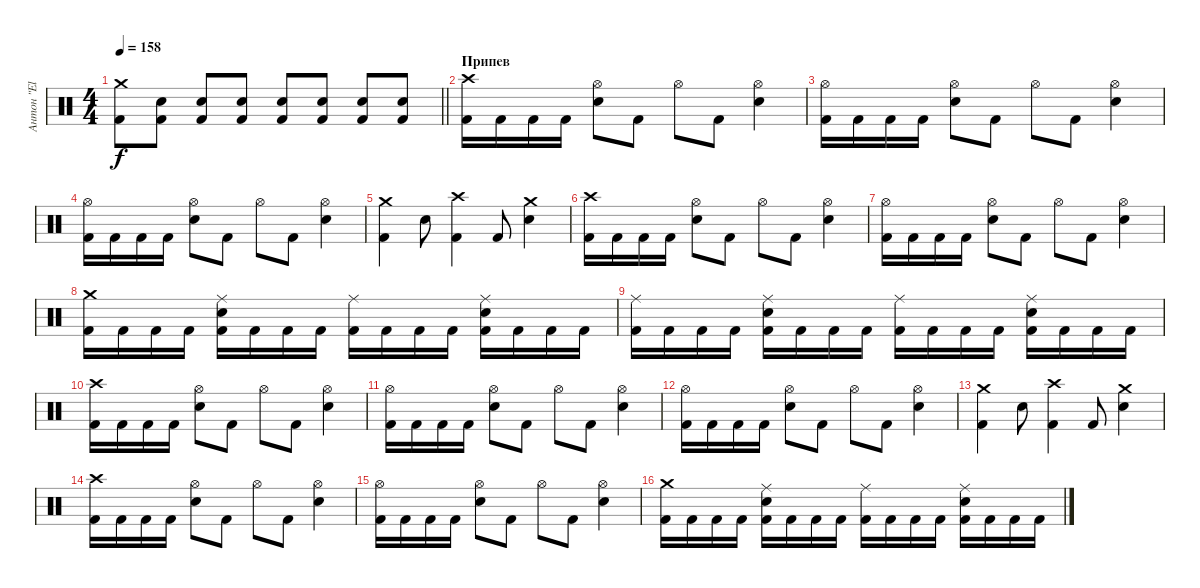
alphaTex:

\track ("Антон \"El Bastardo\" Смольянин" "Антон \"El ") {instrument percussion}
\staff {score}
\articulation defaults
\ts (4 4)
\tempo 158
\clef neutral
\barLineRight lightlight
\ks c
("Crash medium (hit)" "Kick (hit) 2").8{dy f} ("Electric Snare (hit)" "Kick (hit) 2").8 ("Electric Snare (hit)" "Kick (hit) 2").8 ("Electric Snare (hit)" "Kick (hit) 2").8 ("Electric Snare (hit)" "Kick (hit) 2").8 ("Electric Snare (hit)" "Kick (hit) 2").8 ("Electric Snare (hit)" "Kick (hit) 2").8 ("Electric Snare (hit)" "Kick (hit) 2").8 |
\section ("" "Припев")
("Crash high (hit)" "Kick (hit) 2").16 "Kick (hit) 2".16 "Kick (hit) 2".16 "Kick (hit) 2".16 ("Hi-Hat (open)" "Electric Snare (hit)").8 "Kick (hit) 2".8 "Hi-Hat (open)".8 "Kick (hit) 2".8 ("Hi-Hat (open)" "Electric Snare (hit)").4 |
("Hi-Hat (open)" "Kick (hit) 2").16 "Kick (hit) 2".16 "Kick (hit) 2".16 "Kick (hit) 2".16 ("Hi-Hat (open)" "Electric Snare (hit)").8 "Kick (hit) 2".8 "Hi-Hat (open)".8 "Kick (hit) 2".8 ("Hi-Hat (open)" "Electric Snare (hit)").4 |
("Hi-Hat (open)" "Kick (hit) 2").16 "Kick (hit) 2".16 "Kick (hit) 2".16 "Kick (hit) 2".16 ("Hi-Hat (open)" "Electric Snare (hit)").8 "Kick (hit) 2".8 "Hi-Hat (open)".8 "Kick (hit) 2".8 ("Hi-Hat (open)" "Electric Snare (hit)").4 |
("Crash medium (hit)" "Kick (hit) 2").4 "Electric Snare (hit)".8 ("Crash high (hit)" "Kick (hit) 2").4 "Kick (hit) 2".8 ("Crash medium (hit)" "Electric Snare (hit)").4 |
("Crash high (hit)" "Kick (hit) 2").16 "Kick (hit) 2".16 "Kick (hit) 2".16 "Kick (hit) 2".16 ("Hi-Hat (open)" "Electric Snare (hit)").8 "Kick (hit) 2".8 "Hi-Hat (open)".8 "Kick (hit) 2".8 ("Hi-Hat (open)" "Electric Snare (hit)").4 |
("Hi-Hat (open)" "Kick (hit) 2").16 "Kick (hit) 2".16 "Kick (hit) 2".16 "Kick (hit) 2".16 ("Hi-Hat (open)" "Electric Snare (hit)").8 "Kick (hit) 2".8 "Hi-Hat (open)".8 "Kick (hit) 2".8 ("Hi-Hat (open)" "Electric Snare (hit)").4 |
("Crash medium (hit)" "Kick (hit) 2").16 "Kick (hit) 2".16 "Kick (hit) 2".16 "Kick (hit) 2".16 ("Ride (middle)" "Electric Snare (hit)" "Kick (hit) 2").16 "Kick (hit) 2".16 "Kick (hit) 2".16 "Kick (hit) 2".16 ("Ride (middle)" "Kick (hit) 2").16 "Kick (hit) 2".16 "Kick (hit) 2".16 "Kick (hit) 2".16 ("Ride (middle)" "Electric Snare (hit)" "Kick (hit) 2").16 "Kick (hit) 2".16 "Kick (hit) 2".16 "Kick (hit) 2".16 |
("Ride (middle)" "Kick (hit) 2").16 "Kick (hit) 2".16 "Kick (hit) 2".16 "Kick (hit) 2".16 ("Ride (middle)" "Electric Snare (hit)" "Kick (hit) 2").16 "Kick (hit) 2".16 "Kick (hit) 2".16 "Kick (hit) 2".16 ("Ride (middle)" "Kick (hit) 2").16 "Kick (hit) 2".16 "Kick (hit) 2".16 "Kick (hit) 2".16 ("Ride (middle)" "Electric Snare (hit)" "Kick (hit) 2").16 "Kick (hit) 2".16 "Kick (hit) 2".16 "Kick (hit) 2".16 |
("Crash high (hit)" "Kick (hit) 2").16 "Kick (hit) 2".16 "Kick (hit) 2".16 "Kick (hit) 2".16 ("Hi-Hat (open)" "Electric Snare (hit)").8 "Kick (hit) 2".8 "Hi-Hat (open)".8 "Kick (hit) 2".8 ("Hi-Hat (open)" "Electric Snare (hit)").4 |
("Hi-Hat (open)" "Kick (hit) 2").16 "Kick (hit) 2".16 "Kick (hit) 2".16 "Kick (hit) 2".16 ("Hi-Hat (open)" "Electric Snare (hit)").8 "Kick (hit) 2".8 "Hi-Hat (open)".8 "Kick (hit) 2".8 ("Hi-Hat (open)" "Electric Snare (hit)").4 |
("Hi-Hat (open)" "Kick (hit) 2").16 "Kick (hit) 2".16 "Kick (hit) 2".16 "Kick (hit) 2".16 ("Hi-Hat (open)" "Electric Snare (hit)").8 "Kick (hit) 2".8 "Hi-Hat (open)".8 "Kick (hit) 2".8 ("Hi-Hat (open)" "Electric Snare (hit)").4 |
("Crash medium (hit)" "Kick (hit) 2").4 "Electric Snare (hit)".8 ("Crash high (hit)" "Kick (hit) 2").4 "Kick (hit) 2".8 ("Crash medium (hit)" "Electric Snare (hit)").4 |
("Crash high (hit)" "Kick (hit) 2").16 "Kick (hit) 2".16 "Kick (hit) 2".16 "Kick (hit) 2".16 ("Hi-Hat (open)" "Electric Snare (hit)").8 "Kick (hit) 2".8 "Hi-Hat (open)".8 "Kick (hit) 2".8 ("Hi-Hat (open)" "Electric Snare (hit)").4 |
("Hi-Hat (open)" "Kick (hit) 2").16 "Kick (hit) 2".16 "Kick (hit) 2".16 "Kick (hit) 2".16 ("Hi-Hat (open)" "Electric Snare (hit)").8 "Kick (hit) 2".8 "Hi-Hat (open)".8 "Kick (hit) 2".8 ("Hi-Hat (open)" "Electric Snare (hit)").4 |
("Crash medium (hit)" "Kick (hit) 2").16 "Kick (hit) 2".16 "Kick (hit) 2".16 "Kick (hit) 2".16 ("Ride (middle)" "Electric Snare (hit)" "Kick (hit) 2").16 "Kick (hit) 2".16 "Kick (hit) 2".16 "Kick (hit) 2".16 ("Ride (middle)" "Kick (hit) 2").16 "Kick (hit) 2".16 "Kick (hit) 2".16 "Kick (hit) 2".16 ("Ride (middle)" "Electric Snare (hit)" "Kick (hit) 2").16 "Kick (hit) 2".16 "Kick (hit) 2".16 "Kick (hit) 2".16
